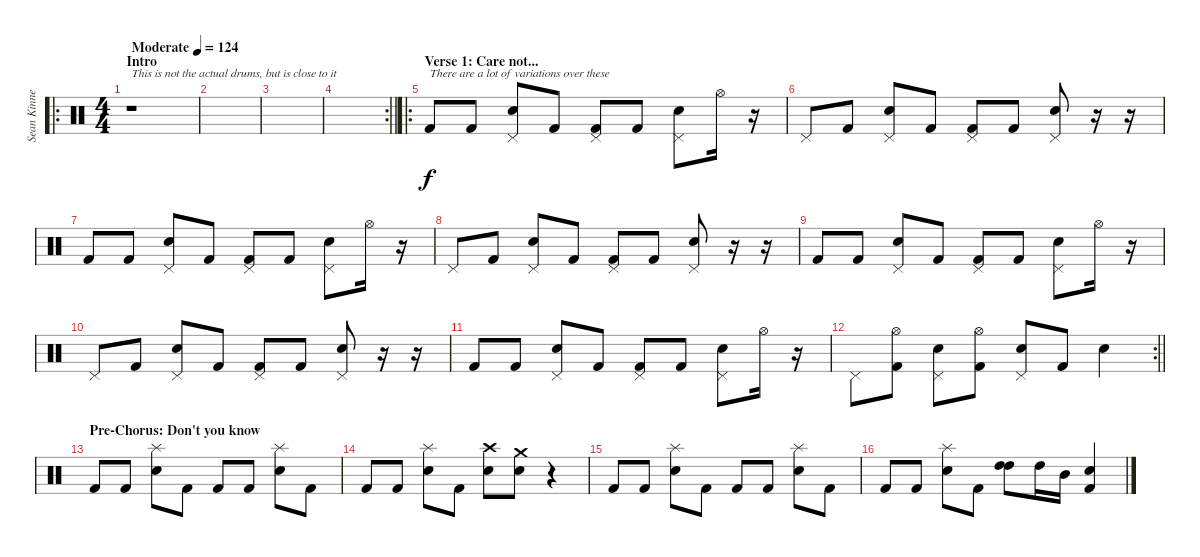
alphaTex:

\track ("Sean Kinney" "Sean Kinne") {instrument percussion}
\staff {score}
\articulation defaults
\ro
\ts (4 4)
\section ("" "Intro")
\tempo (124 "Moderate")
\clef neutral
\ks c
r.1{txt "This is not the actual drums, but is close to it" dy f} |
|
|
\rc 2
\barLineRight lightlight
|
\ro
\section ("" "Verse 1: Care not...")
"Kick (hit) 2".8{txt "There are a lot of variations over these "} "Kick (hit) 2".8 ("Pedal Hi-Hat (hit)" "Snare (hit) 2").8 "Kick (hit) 2".8 ("Pedal Hi-Hat (hit)" "Kick (hit) 2").8 "Kick (hit) 2".8 ("Pedal Hi-Hat (hit)" "Snare (hit) 2").8 "Hi-Hat (open)".16 r.16 |
"Pedal Hi-Hat (hit)".8 "Kick (hit) 2".8 ("Pedal Hi-Hat (hit)" "Snare (hit) 2").8 "Kick (hit) 2".8 ("Pedal Hi-Hat (hit)" "Kick (hit) 2").8 "Kick (hit) 2".8 ("Pedal Hi-Hat (hit)" "Snare (hit) 2").8 r.16 r.16 |
"Kick (hit) 2".8 "Kick (hit) 2".8 ("Pedal Hi-Hat (hit)" "Snare (hit) 2").8 "Kick (hit) 2".8 ("Pedal Hi-Hat (hit)" "Kick (hit) 2").8 "Kick (hit) 2".8 ("Pedal Hi-Hat (hit)" "Snare (hit) 2").8 "Hi-Hat (open)".16 r.16 |
"Pedal Hi-Hat (hit)".8 "Kick (hit) 2".8 ("Pedal Hi-Hat (hit)" "Snare (hit) 2").8 "Kick (hit) 2".8 ("Pedal Hi-Hat (hit)" "Kick (hit) 2").8 "Kick (hit) 2".8 ("Pedal Hi-Hat (hit)" "Snare (hit) 2").8 r.16 r.16 |
"Kick (hit) 2".8 "Kick (hit) 2".8 ("Pedal Hi-Hat (hit)" "Snare (hit) 2").8 "Kick (hit) 2".8 ("Pedal Hi-Hat (hit)" "Kick (hit) 2").8 "Kick (hit) 2".8 ("Pedal Hi-Hat (hit)" "Snare (hit) 2").8 "Hi-Hat (open)".16 r.16 |
"Pedal Hi-Hat (hit)".8 "Kick (hit) 2".8 ("Pedal Hi-Hat (hit)" "Snare (hit) 2").8 "Kick (hit) 2".8 ("Pedal Hi-Hat (hit)" "Kick (hit) 2").8 "Kick (hit) 2".8 ("Pedal Hi-Hat (hit)" "Snare (hit) 2").8 r.16 r.16 |
"Kick (hit) 2".8 "Kick (hit) 2".8 ("Pedal Hi-Hat (hit)" "Snare (hit) 2").8 "Kick (hit) 2".8 ("Pedal Hi-Hat (hit)" "Kick (hit) 2").8 "Kick (hit) 2".8 ("Pedal Hi-Hat (hit)" "Snare (hit) 2").8 "Hi-Hat (open)".16 r.16 |
\rc 2
\barLineRight lightlight "Pedal Hi-Hat (hit)".8
("Hi-Hat (open)" "Kick (hit) 2").8 ("Pedal Hi-Hat (hit)" "Snare (hit) 2").8 ("Hi-Hat (open)" "Kick (hit) 2").8 ("Pedal Hi-Hat (hit)" "Snare (hit) 2").8 "Kick (hit) 2".8 "Snare (hit) 2".4 |
\section ("" "Pre-Chorus: Don't you know")
"Kick (hit) 2".8 "Kick (hit) 2".8 ("Splash (hit)" "Snare (hit) 2").8 "Kick (hit) 2".8 "Kick (hit) 2".8 "Kick (hit) 2".8 ("Splash (hit)" "Snare (hit) 2").8 "Kick (hit) 2".8 |
"Kick (hit) 2".8 "Kick (hit) 2".8 ("Splash (hit)" "Snare (hit) 2").8 "Kick (hit) 2".8 ("Crash high (hit)" "Snare (hit) 2").8 ("Crash medium (hit)" "Snare (hit) 2").8 r.4 |
"Kick (hit) 2".8 "Kick (hit) 2".8 ("Splash (hit)" "Snare (hit) 2").8 "Kick (hit) 2".8 "Kick (hit) 2".8 "Kick (hit) 2".8 ("Splash (hit)" "Snare (hit) 2").8 "Kick (hit) 2".8 |
"Kick (hit) 2".8 "Kick (hit) 2".8 ("Splash (hit)" "Snare (hit) 2").8 "Kick (hit) 2".8 ("High Tom (hit)" "High Tom (hit)").8 "High Tom (hit)".16 "Mid Tom (hit)".16 ("Snare (hit) 2" "Kick (hit) 2").4
